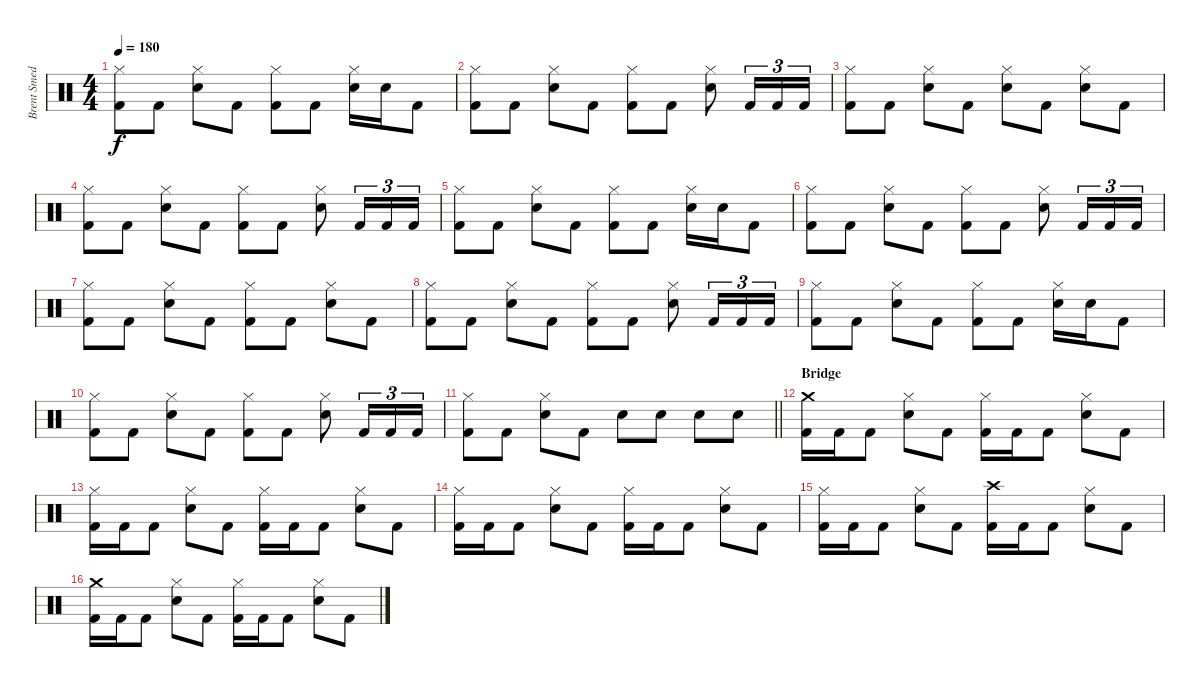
\track ("Brent Smedley" "Brent Smed") {instrument percussion}
\staff {score}
\articulation defaults
\ts (4 4)
\tempo 180
\clef neutral
\ks c
("Hi-Hat (closed)" "Kick (hit) 2").8{dy f} "Kick (hit) 2".8 ("Hi-Hat (closed)" "Snare (hit) 2").8 "Kick (hit) 2".8 ("Hi-Hat (closed)" "Kick (hit) 2").8 "Kick (hit) 2".8 ("Hi-Hat (closed)" "Snare (hit) 2").16 "Snare (hit) 2".16 "Kick (hit) 2".8 |
("Hi-Hat (closed)" "Kick (hit) 2").8 "Kick (hit) 2".8 ("Hi-Hat (closed)" "Snare (hit) 2").8 "Kick (hit) 2".8 ("Hi-Hat (closed)" "Kick (hit) 2").8 "Kick (hit) 2".8 ("Hi-Hat (closed)" "Snare (hit) 2").8 "Kick (hit) 2".16{tu (3 2)} "Kick (hit) 2".16{tu (3 2)} "Kick (hit) 2".16{tu (3 2)} |
("Hi-Hat (closed)" "Kick (hit) 2").8 "Kick (hit) 2".8 ("Hi-Hat (closed)" "Snare (hit) 2").8 "Kick (hit) 2".8 ("Hi-Hat (closed)" "Snare (hit) 2").8 "Kick (hit) 2".8 ("Hi-Hat (closed)" "Snare (hit) 2").8 "Kick (hit) 2".8 |
("Hi-Hat (closed)" "Kick (hit) 2").8 "Kick (hit) 2".8 ("Hi-Hat (closed)" "Snare (hit) 2").8 "Kick (hit) 2".8 ("Hi-Hat (closed)" "Kick (hit) 2").8 "Kick (hit) 2".8 ("Hi-Hat (closed)" "Snare (hit) 2").8 "Kick (hit) 2".16{tu (3 2)} "Kick (hit) 2".16{tu (3 2)} "Kick (hit) 2".16{tu (3 2)} |
("Hi-Hat (closed)" "Kick (hit) 2").8 "Kick (hit) 2".8 ("Hi-Hat (closed)" "Snare (hit) 2").8 "Kick (hit) 2".8 ("Hi-Hat (closed)" "Kick (hit) 2").8 "Kick (hit) 2".8 ("Hi-Hat (closed)" "Snare (hit) 2").16 "Snare (hit) 2".16 "Kick (hit) 2".8 |
("Hi-Hat (closed)" "Kick (hit) 2").8 "Kick (hit) 2".8 ("Hi-Hat (closed)" "Snare (hit) 2").8 "Kick (hit) 2".8 ("Hi-Hat (closed)" "Kick (hit) 2").8 "Kick (hit) 2".8 ("Hi-Hat (closed)" "Snare (hit) 2").8 "Kick (hit) 2".16{tu (3 2)} "Kick (hit) 2".16{tu (3 2)} "Kick (hit) 2".16{tu (3 2)} |
("Hi-Hat (closed)" "Kick (hit) 2").8 "Kick (hit) 2".8 ("Hi-Hat (closed)" "Snare (hit) 2").8 "Kick (hit) 2".8 ("Hi-Hat (closed)" "Kick (hit) 2").8 "Kick (hit) 2".8 ("Hi-Hat (closed)" "Snare (hit) 2").8 "Kick (hit) 2".8 |
("Hi-Hat (closed)" "Kick (hit) 2").8 "Kick (hit) 2".8 ("Hi-Hat (closed)" "Snare (hit) 2").8 "Kick (hit) 2".8 ("Hi-Hat (closed)" "Kick (hit) 2").8 "Kick (hit) 2".8 ("Hi-Hat (closed)" "Snare (hit) 2").8 "Kick (hit) 2".16{tu (3 2)} "Kick (hit) 2".16{tu (3 2)} "Kick (hit) 2".16{tu (3 2)} |
("Hi-Hat (closed)" "Kick (hit) 2").8 "Kick (hit) 2".8 ("Hi-Hat (closed)" "Snare (hit) 2").8 "Kick (hit) 2".8 ("Hi-Hat (closed)" "Kick (hit) 2").8 "Kick (hit) 2".8 ("Hi-Hat (closed)" "Snare (hit) 2").16 "Snare (hit) 2".16 "Kick (hit) 2".8 |
("Hi-Hat (closed)" "Kick (hit) 2").8 "Kick (hit) 2".8 ("Hi-Hat (closed)" "Snare (hit) 2").8 "Kick (hit) 2".8 ("Hi-Hat (closed)" "Kick (hit) 2").8 "Kick (hit) 2".8 ("Hi-Hat (closed)" "Snare (hit) 2").8 "Kick (hit) 2".16{tu (3 2)} "Kick (hit) 2".16{tu (3 2)} "Kick (hit) 2".16{tu (3 2)} |
\barLineRight lightlight
("Hi-Hat (closed)" "Kick (hit) 2").8 "Kick (hit) 2".8 ("Hi-Hat (closed)" "Snare (hit) 2").8 "Kick (hit) 2".8 "Snare (hit) 2".8 "Snare (hit) 2".8 "Snare (hit) 2".8 "Snare (hit) 2".8 |
\section ("" "Bridge")
("Crash medium (hit)" "Kick (hit) 2").16 "Kick (hit) 2".16 "Kick (hit) 2".8 ("Hi-Hat (closed)" "Snare (hit) 2").8 "Kick (hit) 2".8 ("Hi-Hat (closed)" "Kick (hit) 2").16 "Kick (hit) 2".16 "Kick (hit) 2".8 ("Hi-Hat (closed)" "Snare (hit) 2").8 "Kick (hit) 2".8 |
("Hi-Hat (closed)" "Kick (hit) 2").16 "Kick (hit) 2".16 "Kick (hit) 2".8 ("Hi-Hat (closed)" "Snare (hit) 2").8 "Kick (hit) 2".8 ("Hi-Hat (closed)" "Kick (hit) 2").16 "Kick (hit) 2".16 "Kick (hit) 2".8 ("Hi-Hat (closed)" "Snare (hit) 2").8 "Kick (hit) 2".8 |
("Hi-Hat (closed)" "Kick (hit) 2").16 "Kick (hit) 2".16 "Kick (hit) 2".8 ("Hi-Hat (closed)" "Snare (hit) 2").8 "Kick (hit) 2".8 ("Hi-Hat (closed)" "Kick (hit) 2").16 "Kick (hit) 2".16 "Kick (hit) 2".8 ("Hi-Hat (closed)" "Snare (hit) 2").8 "Kick (hit) 2".8 |
("Hi-Hat (closed)" "Kick (hit) 2").16 "Kick (hit) 2".16 "Kick (hit) 2".8 ("Hi-Hat (closed)" "Snare (hit) 2").8 "Kick (hit) 2".8 ("Crash high (hit)" "Kick (hit) 2").16 "Kick (hit) 2".16 "Kick (hit) 2".8 ("Hi-Hat (closed)" "Snare (hit) 2").8 "Kick (hit) 2".8 |
("Crash medium (hit)" "Kick (hit) 2").16 "Kick (hit) 2".16 "Kick (hit) 2".8 ("Hi-Hat (closed)" "Snare (hit) 2").8 "Kick (hit) 2".8 ("Hi-Hat (closed)" "Kick (hit) 2").16 "Kick (hit) 2".16 "Kick (hit) 2".8 ("Hi-Hat (closed)" "Snare (hit) 2").8 "Kick (hit) 2".8
